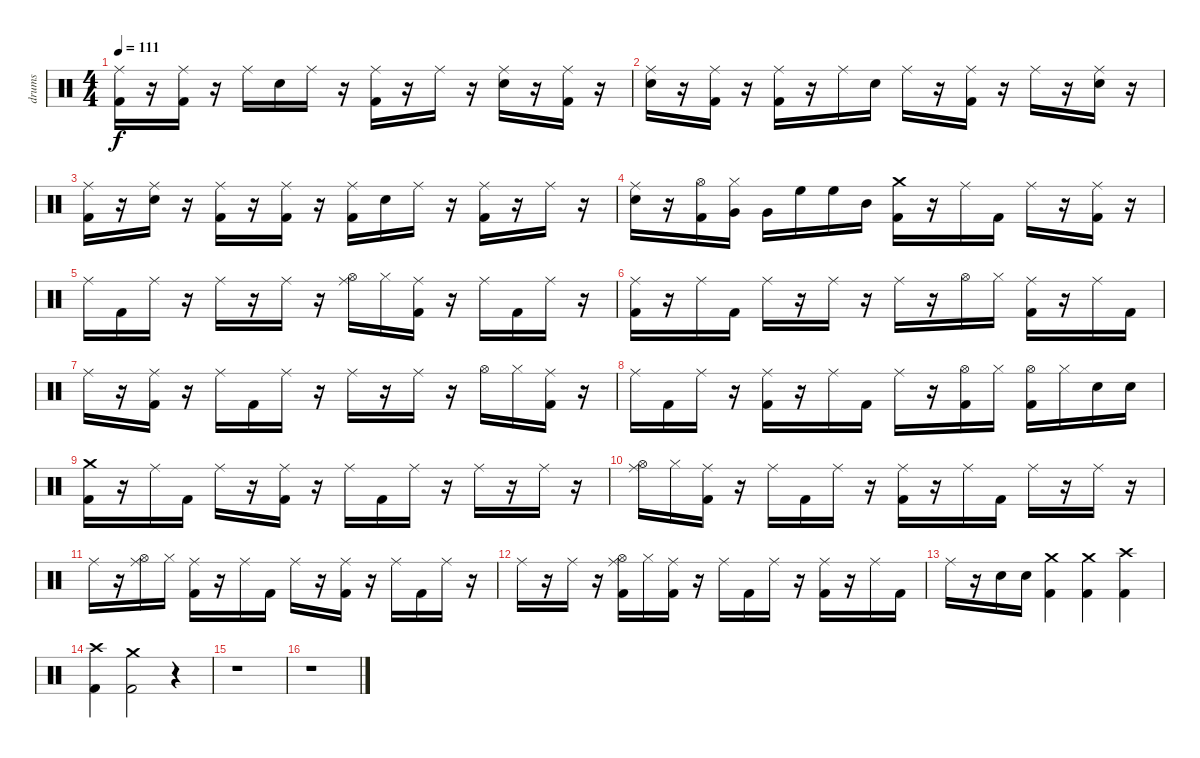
\track ("drums" "drums") {instrument percussion}
\staff {score}
\articulation defaults
\ts (4 4)
\tempo 111
\clef neutral
\ks c
("Ride (middle)" "Kick (hit) 2").16{dy f} r.16 ("Ride (middle)" "Kick (hit) 2").16 r.16 "Ride (middle)".16 "Electric Snare (hit)".16 "Ride (middle)".16 r.16 ("Ride (middle)" "Kick (hit) 2").16 r.16 "Ride (middle)".16 r.16 ("Ride (middle)" "Electric Snare (hit)").16 r.16 ("Ride (middle)" "Kick (hit) 2").16 r.16 |
("Ride (middle)" "Electric Snare (hit)").16 r.16 ("Ride (middle)" "Kick (hit) 2").16 r.16 ("Ride (middle)" "Kick (hit) 2").16 r.16 "Ride (middle)".16 "Electric Snare (hit)".16 "Ride (middle)".16 r.16 ("Ride (middle)" "Kick (hit) 2").16 r.16 "Ride (middle)".16 r.16 ("Ride (middle)" "Electric Snare (hit)").16 r.16 |
("Ride (middle)" "Kick (hit) 2").16 r.16 ("Ride (middle)" "Electric Snare (hit)").16 r.16 ("Ride (middle)" "Kick (hit) 2").16 r.16 ("Ride (middle)" "Kick (hit) 2").16 r.16 ("Ride (middle)" "Kick (hit) 2").16 "Electric Snare (hit)".16 "Ride (middle)".16 r.16 ("Ride (middle)" "Kick (hit) 2").16 r.16 "Ride (middle)".16 r.16 |
("Ride (middle)" "Electric Snare (hit)").16 r.16 ("Hi-Hat (open)" "Kick (hit) 2").16 ("Hi-Hat (closed)" "Very Low Tom (hit)").16 "Very Low Tom (hit)".16 "High Floor Tom (hit)".16 "High Floor Tom (hit)".16 "Mid Tom (hit)".16 ("Crash medium (hit)" "Kick (hit) 2").16 r.16 "Ride (middle)".16 "Kick (hit) 2".16 "Ride (middle)".16 r.16 ("Ride (middle)" "Kick (hit) 2").16 r.16 |
"Ride (middle)".16 "Kick (hit) 2".16 "Ride (middle)".16 r.16 "Ride (middle)".16 r.16 "Ride (middle)".16 r.16 ("Hi-Hat (open)" "Ride (middle)").16 "Hi-Hat (closed)".16 ("Ride (middle)" "Kick (hit) 2").16 r.16 "Ride (middle)".16 "Kick (hit) 2".16 "Ride (middle)".16 r.16 |
("Ride (middle)" "Kick (hit) 2").16 r.16 "Ride (middle)".16 "Kick (hit) 2".16 "Ride (middle)".16 r.16 "Ride (middle)".16 r.16 "Ride (middle)".16 r.16 "Hi-Hat (open)".16 "Hi-Hat (closed)".16 ("Ride (middle)" "Kick (hit) 2").16 r.16 "Ride (middle)".16 "Kick (hit) 2".16 |
"Ride (middle)".16 r.16 ("Ride (middle)" "Kick (hit) 2").16 r.16 "Ride (middle)".16 "Kick (hit) 2".16 "Ride (middle)".16 r.16 "Ride (middle)".16 r.16 "Ride (middle)".16 r.16 "Hi-Hat (open)".16 "Hi-Hat (closed)".16 ("Ride (middle)" "Kick (hit) 2").16 r.16 |
"Ride (middle)".16 "Kick (hit) 2".16 "Ride (middle)".16 r.16 ("Ride (middle)" "Kick (hit) 2").16 r.16 "Ride (middle)".16 "Kick (hit) 2".16 "Ride (middle)".16 r.16 ("Hi-Hat (open)" "Kick (hit) 2").16 "Hi-Hat (closed)".16 ("Hi-Hat (open)" "Kick (hit) 2").16 "Hi-Hat (closed)".16 "Electric Snare (hit)".16 "Electric Snare (hit)".16 |
("Crash medium (hit)" "Kick (hit) 2").16 r.16 "Ride (middle)".16 "Kick (hit) 2".16 "Ride (middle)".16 r.16 ("Ride (middle)" "Kick (hit) 2").16 r.16 "Ride (middle)".16 "Kick (hit) 2".16 "Ride (middle)".16 r.16 "Ride (middle)".16 r.16 "Ride (middle)".16 r.16 |
("Hi-Hat (open)" "Ride (middle)").16 "Hi-Hat (closed)".16 ("Ride (middle)" "Kick (hit) 2").16 r.16 "Ride (middle)".16 "Kick (hit) 2".16 "Ride (middle)".16 r.16 ("Ride (middle)" "Kick (hit) 2").16 r.16 "Ride (middle)".16 "Kick (hit) 2".16 "Ride (middle)".16 r.16 "Ride (middle)".16 r.16 |
"Ride (middle)".16 r.16 ("Hi-Hat (open)" "Ride (middle)").16 "Hi-Hat (closed)".16 ("Ride (middle)" "Kick (hit) 2").16 r.16 "Ride (middle)".16 "Kick (hit) 2".16 "Ride (middle)".16 r.16 ("Ride (middle)" "Kick (hit) 2").16 r.16 "Ride (middle)".16 "Kick (hit) 2".16 "Ride (middle)".16 r.16 |
"Ride (middle)".16 r.16 "Ride (middle)".16 r.16 ("Hi-Hat (open)" "Ride (middle)" "Kick (hit) 2").16 "Hi-Hat (closed)".16 ("Ride (middle)" "Kick (hit) 2").16 r.16 "Ride (middle)".16 "Kick (hit) 2".16 "Ride (middle)".16 r.16 ("Ride (middle)" "Kick (hit) 2").16 r.16 "Ride (middle)".16 "Kick (hit) 2".16 |
"Ride (middle)".16 r.16 "Electric Snare (hit)".16 "Electric Snare (hit)".16 ("Crash medium (hit)" "Kick (hit) 2").4 ("Crash medium (hit)" "Kick (hit) 2").4 ("Crash high (hit)" "Kick (hit) 2").4 |
("Crash high (hit)" "Kick (hit) 2").4 ("Crash medium (hit)" "Kick (hit) 2").2 r.4 |
r.1 |
r.1
